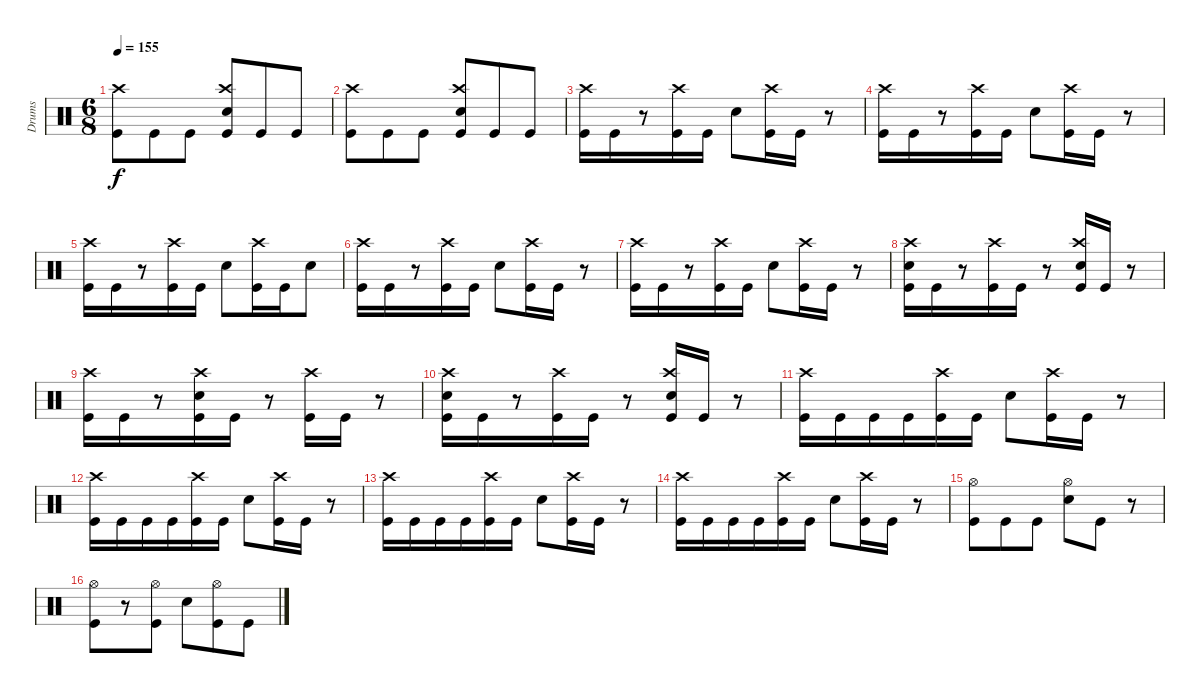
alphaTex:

\track ("Drums" "Drums") {instrument percussion}
\staff {score}
\articulation defaults
\ts (6 8)
\tempo 155
\clef neutral
\ks c
("Kick (hit)" "Crash high (hit)").8{dy f} "Kick (hit)".8 "Kick (hit)".8 ("Kick (hit)" "Snare (hit) 2" "Crash high (hit)").8 "Kick (hit)".8 "Kick (hit)".8 |
("Kick (hit)" "Crash high (hit)").8 "Kick (hit)".8 "Kick (hit)".8 ("Kick (hit)" "Snare (hit) 2" "Crash high (hit)").8 "Kick (hit)".8 "Kick (hit)".8 |
("Kick (hit)" "Crash high (hit)").16 "Kick (hit)".16 r.8 ("Kick (hit)" "Crash high (hit)").16 "Kick (hit)".16 "Snare (hit) 2".8 ("Kick (hit)" "Crash high (hit)").16 "Kick (hit)".16 r.8 |
("Kick (hit)" "Crash high (hit)").16 "Kick (hit)".16 r.8 ("Kick (hit)" "Crash high (hit)").16 "Kick (hit)".16 "Snare (hit) 2".8 ("Kick (hit)" "Crash high (hit)").16 "Kick (hit)".16 r.8 |
("Kick (hit)" "Crash high (hit)").16 "Kick (hit)".16 r.8 ("Kick (hit)" "Crash high (hit)").16 "Kick (hit)".16 "Snare (hit) 2".8 ("Kick (hit)" "Crash high (hit)").16 "Kick (hit)".16 "Snare (hit) 2".8 |
("Kick (hit)" "Crash high (hit)").16 "Kick (hit)".16 r.8 ("Kick (hit)" "Crash high (hit)").16 "Kick (hit)".16 "Snare (hit) 2".8 ("Kick (hit)" "Crash high (hit)").16 "Kick (hit)".16 r.8 |
("Kick (hit)" "Crash high (hit)").16 "Kick (hit)".16 r.8 ("Kick (hit)" "Crash high (hit)").16 "Kick (hit)".16 "Snare (hit) 2".8 ("Kick (hit)" "Crash high (hit)").16 "Kick (hit)".16 r.8 |
("Kick (hit)" "Snare (hit) 2" "Crash high (hit)").16 "Kick (hit)".16 r.8 ("Kick (hit)" "Crash high (hit)").16 "Kick (hit)".16 r.8 ("Kick (hit)" "Snare (hit) 2" "Crash high (hit)").16 "Kick (hit)".16 r.8 |
("Kick (hit)" "Crash high (hit)").16 "Kick (hit)".16 r.8 ("Kick (hit)" "Snare (hit) 2" "Crash high (hit)").16 "Kick (hit)".16 r.8 ("Kick (hit)" "Crash high (hit)").16 "Kick (hit)".16 r.8 |
("Kick (hit)" "Snare (hit) 2" "Crash high (hit)").16 "Kick (hit)".16 r.8 ("Kick (hit)" "Crash high (hit)").16 "Kick (hit)".16 r.8 ("Kick (hit)" "Snare (hit) 2" "Crash high (hit)").16 "Kick (hit)".16 r.8 |
("Kick (hit)" "Crash high (hit)").16 "Kick (hit)".16 "Kick (hit)".16 "Kick (hit)".16 ("Kick (hit)" "Crash high (hit)").16 "Kick (hit)".16 "Snare (hit) 2".8 ("Kick (hit)" "Crash high (hit)").16 "Kick (hit)".16 r.8 |
("Kick (hit)" "Crash high (hit)").16 "Kick (hit)".16 "Kick (hit)".16 "Kick (hit)".16 ("Kick (hit)" "Crash high (hit)").16 "Kick (hit)".16 "Snare (hit) 2".8 ("Kick (hit)" "Crash high (hit)").16 "Kick (hit)".16 r.8 |
("Kick (hit)" "Crash high (hit)").16 "Kick (hit)".16 "Kick (hit)".16 "Kick (hit)".16 ("Kick (hit)" "Crash high (hit)").16 "Kick (hit)".16 "Snare (hit) 2".8 ("Kick (hit)" "Crash high (hit)").16 "Kick (hit)".16 r.8 |
("Kick (hit)" "Crash high (hit)").16 "Kick (hit)".16 "Kick (hit)".16 "Kick (hit)".16 ("Kick (hit)" "Crash high (hit)").16 "Kick (hit)".16 "Snare (hit) 2".8 ("Kick (hit)" "Crash high (hit)").16 "Kick (hit)".16 r.8 |
("Kick (hit)" "Hi-Hat (open)").8 "Kick (hit)".8 "Kick (hit)".8 ("Snare (hit) 2" "Hi-Hat (open)").8 "Kick (hit)".8 r.8 |
("Kick (hit)" "Hi-Hat (open)").8 r.8 ("Kick (hit)" "Hi-Hat (open)").8 "Snare (hit) 2".8 ("Kick (hit)" "Hi-Hat (open)").8 "Kick (hit)".8
